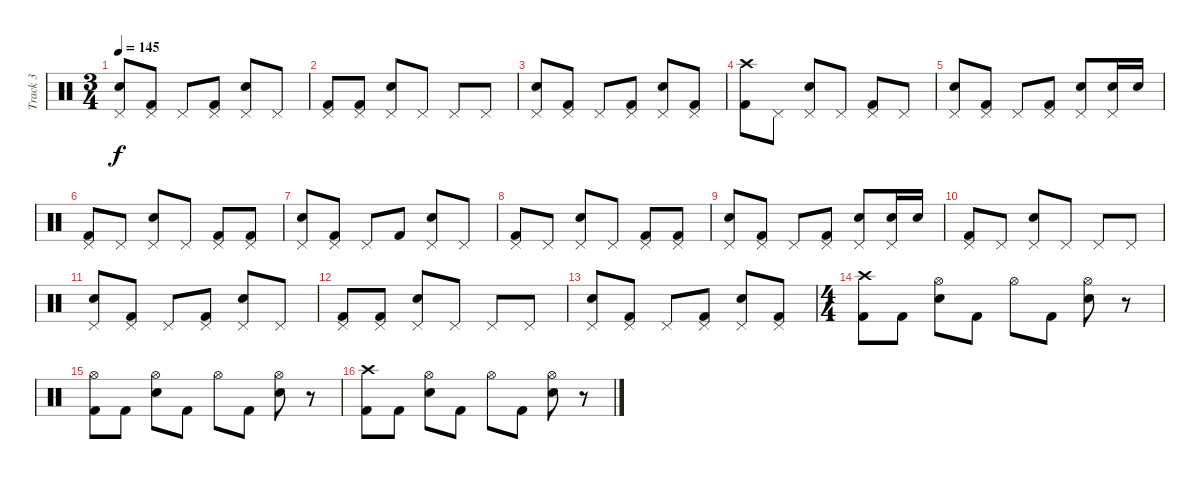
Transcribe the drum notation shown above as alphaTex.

\track ("Track 3" "Track 3") {instrument percussion}
\staff {score}
\articulation defaults
\ts (3 4)
\tempo 145
\clef neutral
\ks c
("Pedal Hi-Hat (hit)" "Electric Snare (hit)").8{dy f} ("Kick (hit) 2" "Pedal Hi-Hat (hit)").8 "Pedal Hi-Hat (hit)".8 ("Pedal Hi-Hat (hit)" "Kick (hit) 2").8 ("Pedal Hi-Hat (hit)" "Electric Snare (hit)").8 "Pedal Hi-Hat (hit)".8 |
("Kick (hit) 2" "Pedal Hi-Hat (hit)").8 ("Pedal Hi-Hat (hit)" "Kick (hit) 2").8 ("Pedal Hi-Hat (hit)" "Electric Snare (hit)").8 "Pedal Hi-Hat (hit)".8 "Pedal Hi-Hat (hit)".8 "Pedal Hi-Hat (hit)".8 |
("Pedal Hi-Hat (hit)" "Electric Snare (hit)").8 ("Pedal Hi-Hat (hit)" "Kick (hit) 2").8 "Pedal Hi-Hat (hit)".8 ("Pedal Hi-Hat (hit)" "Kick (hit) 2").8 ("Electric Snare (hit)" "Pedal Hi-Hat (hit)").8 ("Pedal Hi-Hat (hit)" "Kick (hit) 2").8 |
("Crash high (hit)" "Kick (hit) 2").8 "Pedal Hi-Hat (hit)".8 ("Pedal Hi-Hat (hit)" "Electric Snare (hit)").8 "Pedal Hi-Hat (hit)".8 ("Pedal Hi-Hat (hit)" "Kick (hit) 2").8 "Pedal Hi-Hat (hit)".8 |
("Pedal Hi-Hat (hit)" "Electric Snare (hit)").8 ("Pedal Hi-Hat (hit)" "Kick (hit) 2").8 "Pedal Hi-Hat (hit)".8 ("Pedal Hi-Hat (hit)" "Kick (hit) 2").8 ("Electric Snare (hit)" "Pedal Hi-Hat (hit)").8 ("Pedal Hi-Hat (hit)" "Electric Snare (hit)").16 "Electric Snare (hit)".16 |
("Pedal Hi-Hat (hit)" "Kick (hit) 2").8 "Pedal Hi-Hat (hit)".8 ("Pedal Hi-Hat (hit)" "Electric Snare (hit)").8 "Pedal Hi-Hat (hit)".8 ("Pedal Hi-Hat (hit)" "Kick (hit) 2").8 ("Pedal Hi-Hat (hit)" "Kick (hit) 2").8 |
("Pedal Hi-Hat (hit)" "Electric Snare (hit)").8 ("Pedal Hi-Hat (hit)" "Kick (hit) 2").8 "Pedal Hi-Hat (hit)".8 "Kick (hit) 2".8 ("Pedal Hi-Hat (hit)" "Electric Snare (hit)").8 "Pedal Hi-Hat (hit)".8 |
("Pedal Hi-Hat (hit)" "Kick (hit) 2").8 "Pedal Hi-Hat (hit)".8 ("Pedal Hi-Hat (hit)" "Electric Snare (hit)").8 "Pedal Hi-Hat (hit)".8 ("Pedal Hi-Hat (hit)" "Kick (hit) 2").8 ("Pedal Hi-Hat (hit)" "Kick (hit) 2").8 |
("Pedal Hi-Hat (hit)" "Electric Snare (hit)").8 ("Pedal Hi-Hat (hit)" "Kick (hit) 2").8 "Pedal Hi-Hat (hit)".8 ("Pedal Hi-Hat (hit)" "Kick (hit) 2").8 ("Electric Snare (hit)" "Pedal Hi-Hat (hit)").8 ("Pedal Hi-Hat (hit)" "Electric Snare (hit)").16 "Electric Snare (hit)".16 |
("Pedal Hi-Hat (hit)" "Kick (hit) 2").8 "Pedal Hi-Hat (hit)".8 ("Pedal Hi-Hat (hit)" "Electric Snare (hit)").8 "Pedal Hi-Hat (hit)".8 "Pedal Hi-Hat (hit)".8 "Pedal Hi-Hat (hit)".8 |
("Pedal Hi-Hat (hit)" "Electric Snare (hit)").8 ("Kick (hit) 2" "Pedal Hi-Hat (hit)").8 "Pedal Hi-Hat (hit)".8 ("Pedal Hi-Hat (hit)" "Kick (hit) 2").8 ("Pedal Hi-Hat (hit)" "Electric Snare (hit)").8 "Pedal Hi-Hat (hit)".8 |
("Kick (hit) 2" "Pedal Hi-Hat (hit)").8 ("Pedal Hi-Hat (hit)" "Kick (hit) 2").8 ("Pedal Hi-Hat (hit)" "Electric Snare (hit)").8 "Pedal Hi-Hat (hit)".8 "Pedal Hi-Hat (hit)".8 "Pedal Hi-Hat (hit)".8 |
("Pedal Hi-Hat (hit)" "Electric Snare (hit)").8 ("Pedal Hi-Hat (hit)" "Kick (hit) 2").8 "Pedal Hi-Hat (hit)".8 ("Pedal Hi-Hat (hit)" "Kick (hit) 2").8 ("Electric Snare (hit)" "Pedal Hi-Hat (hit)").8 ("Pedal Hi-Hat (hit)" "Kick (hit) 2").8 |
\ts (4 4)
("Crash high (hit)" "Kick (hit) 2").8 "Kick (hit) 2".8 ("Electric Snare (hit)" "Hi-Hat (open)").8 "Kick (hit) 2".8 "Hi-Hat (open)".8 "Kick (hit) 2".8 ("Hi-Hat (open)" "Electric Snare (hit)").8 r.8 |
("Hi-Hat (open)" "Kick (hit) 2").8 "Kick (hit) 2".8 ("Hi-Hat (open)" "Electric Snare (hit)").8 "Kick (hit) 2".8 "Hi-Hat (open)".8 "Kick (hit) 2".8 ("Hi-Hat (open)" "Electric Snare (hit)").8 r.8 |
("Crash high (hit)" "Kick (hit) 2").8 "Kick (hit) 2".8 ("Electric Snare (hit)" "Hi-Hat (open)").8 "Kick (hit) 2".8 "Hi-Hat (open)".8 "Kick (hit) 2".8 ("Hi-Hat (open)" "Electric Snare (hit)").8 r.8
